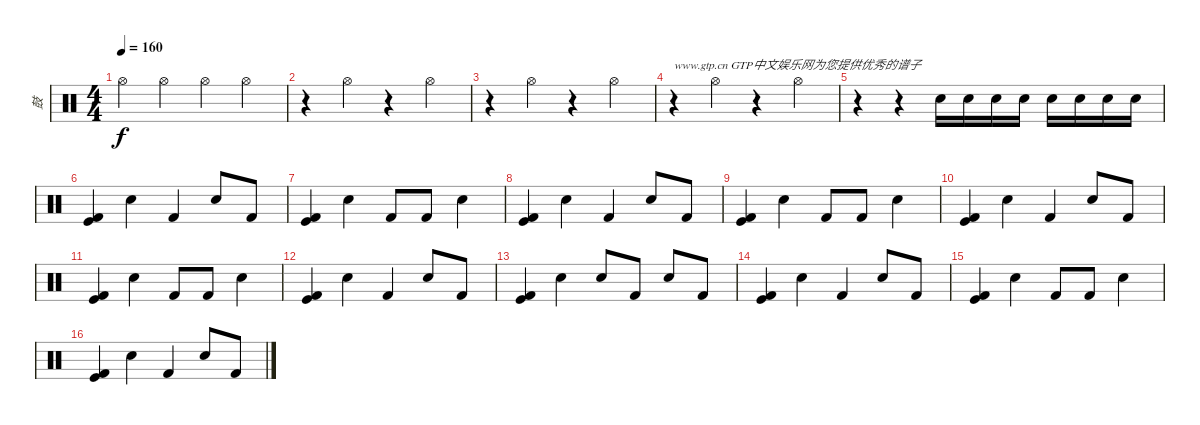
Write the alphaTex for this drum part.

\track ("鼓" "鼓") {instrument percussion}
\staff {score}
\articulation defaults
\ts (4 4)
\tempo 160
\clef neutral
\ks c "Hi-Hat (open)".4{dy f} "Hi-Hat (open)".4 "Hi-Hat (open)".4 "Hi-Hat (open)".4
|
r.4 "Hi-Hat (open)".4 r.4 "Hi-Hat (open)".4 |
r.4 "Hi-Hat (open)".4 r.4 "Hi-Hat (open)".4 |
r.4{txt "www.gtp.cn GTP中文娱乐网为您提供优秀的谱子"} "Hi-Hat (open)".4 r.4 "Hi-Hat (open)".4 |
r.4 r.4 "Snare (hit) 2".16 "Snare (hit) 2".16 "Snare (hit) 2".16 "Snare (hit) 2".16 "Snare (hit) 2".16 "Snare (hit) 2".16 "Snare (hit) 2".16 "Snare (hit) 2".16 |
("Kick (hit)" "Kick (hit) 2").4 "Snare (hit) 2".4 "Kick (hit) 2".4 "Snare (hit) 2".8 "Kick (hit) 2".8 |
("Kick (hit) 2" "Kick (hit)").4 "Snare (hit) 2".4 "Kick (hit) 2".8 "Kick (hit) 2".8 "Snare (hit) 2".4 |
("Kick (hit)" "Kick (hit) 2").4 "Snare (hit) 2".4 "Kick (hit) 2".4 "Snare (hit) 2".8 "Kick (hit) 2".8 |
("Kick (hit) 2" "Kick (hit)").4 "Snare (hit) 2".4 "Kick (hit) 2".8 "Kick (hit) 2".8 "Snare (hit) 2".4 |
("Kick (hit)" "Kick (hit) 2").4 "Snare (hit) 2".4 "Kick (hit) 2".4 "Snare (hit) 2".8 "Kick (hit) 2".8 |
("Kick (hit) 2" "Kick (hit)").4 "Snare (hit) 2".4 "Kick (hit) 2".8 "Kick (hit) 2".8 "Snare (hit) 2".4 |
("Kick (hit)" "Kick (hit) 2").4 "Snare (hit) 2".4 "Kick (hit) 2".4 "Snare (hit) 2".8 "Kick (hit) 2".8 |
("Kick (hit) 2" "Kick (hit)").4 "Snare (hit) 2".4 "Snare (hit) 2".8 "Kick (hit) 2".8 "Snare (hit) 2".8 "Kick (hit) 2".8 |
("Kick (hit)" "Kick (hit) 2").4 "Snare (hit) 2".4 "Kick (hit) 2".4 "Snare (hit) 2".8 "Kick (hit) 2".8 |
("Kick (hit) 2" "Kick (hit)").4 "Snare (hit) 2".4 "Kick (hit) 2".8 "Kick (hit) 2".8 "Snare (hit) 2".4 |
("Kick (hit)" "Kick (hit) 2").4 "Snare (hit) 2".4 "Kick (hit) 2".4 "Snare (hit) 2".8 "Kick (hit) 2".8
